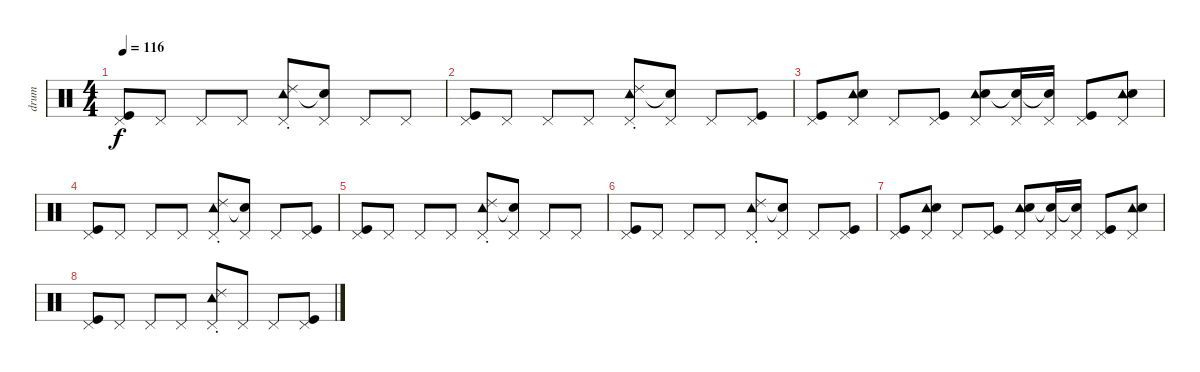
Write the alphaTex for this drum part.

\track ("drum" "drum") {instrument percussion}
\staff {score}
\articulation defaults
\ts (4 4)
\tempo 116
\clef neutral
\ks c
("Pedal Hi-Hat (hit)" "Kick (hit)").8{dy f} "Pedal Hi-Hat (hit)".8 "Pedal Hi-Hat (hit)".8 "Pedal Hi-Hat (hit)".8 ("Pedal Hi-Hat (hit)" "Tambourine (hit)" "Ride (choke) 2").8 ("Pedal Hi-Hat (hit)" "Snare (hit)"{t}).8 "Pedal Hi-Hat (hit)".8 "Pedal Hi-Hat (hit)".8 |
("Pedal Hi-Hat (hit)" "Kick (hit)").8 "Pedal Hi-Hat (hit)".8 "Pedal Hi-Hat (hit)".8 "Pedal Hi-Hat (hit)".8 ("Pedal Hi-Hat (hit)" "Tambourine (hit)" "Ride (choke) 2").8 ("Pedal Hi-Hat (hit)" "Snare (hit)"{t}).8 "Pedal Hi-Hat (hit)".8 ("Pedal Hi-Hat (hit)" "Kick (hit)").8 |
("Pedal Hi-Hat (hit)" "Kick (hit)").8 ("Pedal Hi-Hat (hit)" "Tambourine (hit)" "Snare (hit) 2").8 "Pedal Hi-Hat (hit)".8 ("Pedal Hi-Hat (hit)" "Kick (hit)").8 ("Pedal Hi-Hat (hit)" "Tambourine (hit)" "Snare (hit) 2").8 ("Pedal Hi-Hat (hit)" "Snare (hit)"{t}).16 ("Pedal Hi-Hat (hit)" "Snare (hit)"{t}).16 ("Pedal Hi-Hat (hit)" "Kick (hit)").8 ("Pedal Hi-Hat (hit)" "Tambourine (hit)" "Snare (hit) 2").8 |
("Pedal Hi-Hat (hit)" "Kick (hit)").8 "Pedal Hi-Hat (hit)".8 "Pedal Hi-Hat (hit)".8 "Pedal Hi-Hat (hit)".8 ("Pedal Hi-Hat (hit)" "Tambourine (hit)" "Ride (choke) 2").8 ("Pedal Hi-Hat (hit)" "Snare (hit)"{t}).8 "Pedal Hi-Hat (hit)".8 ("Pedal Hi-Hat (hit)" "Kick (hit)").8 |
("Pedal Hi-Hat (hit)" "Kick (hit)").8 "Pedal Hi-Hat (hit)".8 "Pedal Hi-Hat (hit)".8 "Pedal Hi-Hat (hit)".8 ("Pedal Hi-Hat (hit)" "Tambourine (hit)" "Ride (choke) 2").8 ("Pedal Hi-Hat (hit)" "Snare (hit)"{t}).8 "Pedal Hi-Hat (hit)".8 "Pedal Hi-Hat (hit)".8 |
("Pedal Hi-Hat (hit)" "Kick (hit)").8 "Pedal Hi-Hat (hit)".8 "Pedal Hi-Hat (hit)".8 "Pedal Hi-Hat (hit)".8 ("Pedal Hi-Hat (hit)" "Tambourine (hit)" "Ride (choke) 2").8 ("Pedal Hi-Hat (hit)" "Snare (hit)"{t}).8 "Pedal Hi-Hat (hit)".8 ("Pedal Hi-Hat (hit)" "Kick (hit)").8 |
("Pedal Hi-Hat (hit)" "Kick (hit)").8{volume 16} ("Pedal Hi-Hat (hit)" "Tambourine (hit)" "Snare (hit) 2").8{volume 15} "Pedal Hi-Hat (hit)".8{volume 14} ("Pedal Hi-Hat (hit)" "Kick (hit)").8{volume 13} ("Pedal Hi-Hat (hit)" "Tambourine (hit)" "Snare (hit) 2").8{volume 12} ("Pedal Hi-Hat (hit)" "Snare (hit)"{t}).16{volume 11} ("Pedal Hi-Hat (hit)" "Snare (hit)"{t}).16 ("Pedal Hi-Hat (hit)" "Kick (hit)").8{volume 10} ("Pedal Hi-Hat (hit)" "Tambourine (hit)" "Snare (hit) 2").8{volume 9} |
("Pedal Hi-Hat (hit)" "Kick (hit)").8{volume 8} "Pedal Hi-Hat (hit)".8{volume 7} "Pedal Hi-Hat (hit)".8{volume 6} "Pedal Hi-Hat (hit)".8{volume 5} ("Pedal Hi-Hat (hit)" "Tambourine (hit)" "Ride (choke) 2").8{volume 4} "Pedal Hi-Hat (hit)".8{volume 3} "Pedal Hi-Hat (hit)".8{volume 2} ("Pedal Hi-Hat (hit)" "Kick (hit)").8{volume 1}
